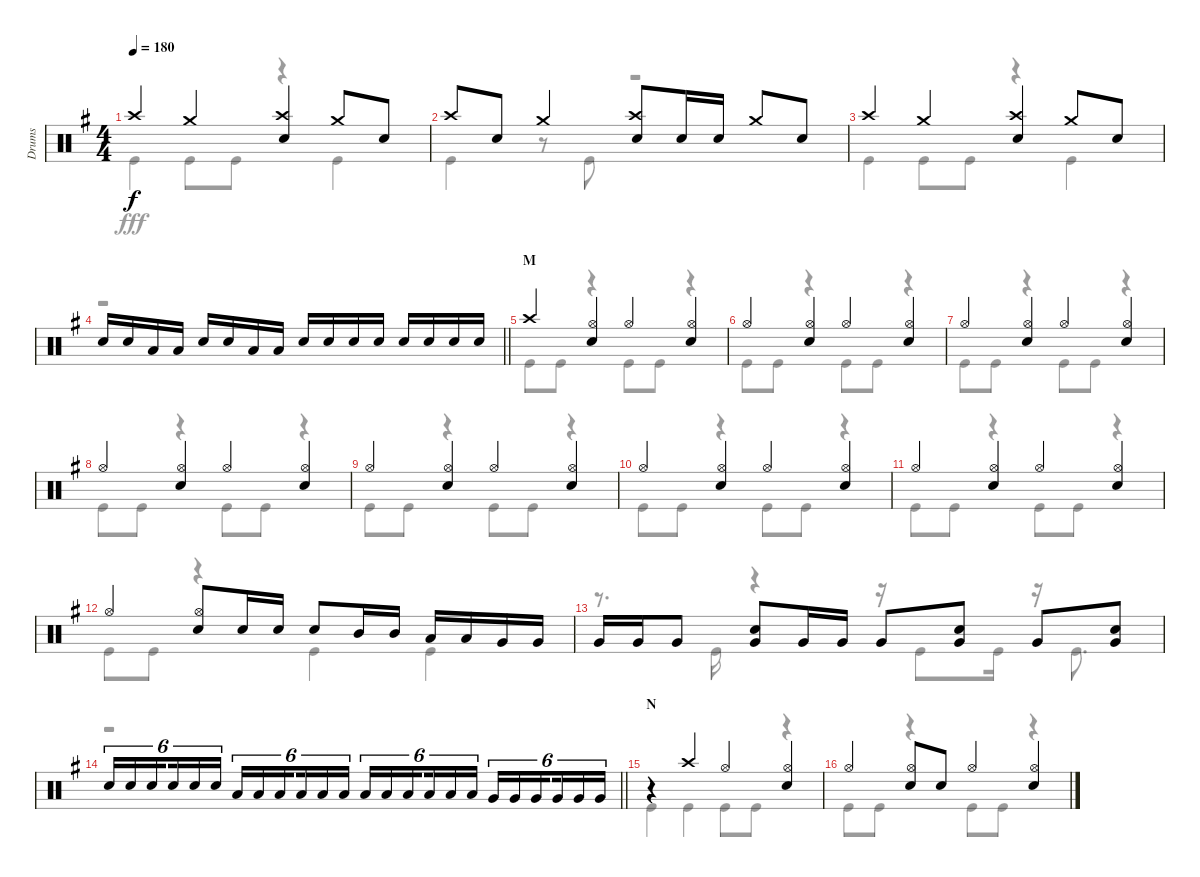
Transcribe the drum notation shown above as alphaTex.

\track ("Drums" "Drums") {instrument percussion}
\staff {score}
\articulation defaults
\voice
\ts (4 4)
\tempo 180
\clef neutral
\ks g "Crash high (hit)".4{dy f} "Crash medium (hit)".4
("Crash high (hit)" "Snare (hit) 2").4 "Crash medium (hit)".8 "Snare (hit) 2".8 |
"Crash high (hit)".8 "Snare (hit) 2".8 "Crash medium (hit)".4 ("Crash high (hit)" "Snare (hit) 2").8 "Snare (hit) 2".16 "Snare (hit) 2".16 "Crash medium (hit)".8 "Snare (hit) 2".8 |
"Crash high (hit)".4 "Crash medium (hit)".4 ("Crash high (hit)" "Snare (hit) 2").4 "Crash medium (hit)".8 "Snare (hit) 2".8 |
\barLineRight lightlight "Snare (hit) 2".16 "Snare (hit) 2".16 "Low Tom (hit)".16 "Low Tom (hit)".16 "Snare (hit) 2".16 "Snare (hit) 2".16 "Low Tom (hit)".16 "Low Tom (hit)".16 "Snare (hit) 2".16 "Snare (hit) 2".16 "Snare (hit) 2".16 "Snare (hit) 2".16 "Snare (hit) 2".16 "Snare (hit) 2".16 "Snare (hit) 2".16 "Snare (hit) 2".16
|
\section ("" "M")
"Crash high (hit)".4 ("Hi-Hat (open)" "Snare (hit) 2").4 "Hi-Hat (open)".4 ("Hi-Hat (open)" "Snare (hit) 2").4 |
"Hi-Hat (open)".4 ("Hi-Hat (open)" "Snare (hit) 2").4 "Hi-Hat (open)".4 ("Hi-Hat (open)" "Snare (hit) 2").4 |
"Hi-Hat (open)".4 ("Hi-Hat (open)" "Snare (hit) 2").4 "Hi-Hat (open)".4 ("Hi-Hat (open)" "Snare (hit) 2").4 |
"Hi-Hat (open)".4 ("Hi-Hat (open)" "Snare (hit) 2").4 "Hi-Hat (open)".4 ("Hi-Hat (open)" "Snare (hit) 2").4 |
"Hi-Hat (open)".4 ("Hi-Hat (open)" "Snare (hit) 2").4 "Hi-Hat (open)".4 ("Hi-Hat (open)" "Snare (hit) 2").4 |
"Hi-Hat (open)".4 ("Hi-Hat (open)" "Snare (hit) 2").4 "Hi-Hat (open)".4 ("Hi-Hat (open)" "Snare (hit) 2").4 |
"Hi-Hat (open)".4 ("Hi-Hat (open)" "Snare (hit) 2").4 "Hi-Hat (open)".4 ("Hi-Hat (open)" "Snare (hit) 2").4 |
"Hi-Hat (open)".4 ("Hi-Hat (open)" "Snare (hit) 2").8 "Snare (hit) 2".16 "Snare (hit) 2".16 "Snare (hit) 2".8 "Mid Tom (hit)".16 "Mid Tom (hit)".16 "Low Tom (hit)".16 "Low Tom (hit)".16 "Very Low Tom (hit)".16 "Very Low Tom (hit)".16 |
"Very Low Tom (hit)".16 "Very Low Tom (hit)".16 "Very Low Tom (hit)".8 ("Snare (hit) 2" "Very Low Tom (hit)").8 "Very Low Tom (hit)".16 "Very Low Tom (hit)".16 "Very Low Tom (hit)".8 ("Snare (hit) 2" "Very Low Tom (hit)").8 "Very Low Tom (hit)".8 ("Snare (hit) 2" "Very Low Tom (hit)").8 |
\barLineRight lightlight "Snare (hit) 2".16{tu (6 4)} "Snare (hit) 2".16{tu (6 4)} "Snare (hit) 2".16{tu (6 4) beam splitsecondary} "Snare (hit) 2".16{tu (6 4)} "Snare (hit) 2".16{tu (6 4)} "Snare (hit) 2".16{tu (6 4)} "Low Tom (hit)".16{tu (6 4)} "Low Tom (hit)".16{tu (6 4)} "Low Tom (hit)".16{tu (6 4) beam splitsecondary} "Low Tom (hit)".16{tu (6 4)} "Low Tom (hit)".16{tu (6 4)} "Low Tom (hit)".16{tu (6 4)} "Low Tom (hit)".16{tu (6 4)} "Low Tom (hit)".16{tu (6 4)} "Low Tom (hit)".16{tu (6 4) beam splitsecondary} "Low Tom (hit)".16{tu (6 4)} "Low Tom (hit)".16{tu (6 4)} "Low Tom (hit)".16{tu (6 4)} "Very Low Tom (hit)".16{tu (6 4)} "Very Low Tom (hit)".16{tu (6 4)} "Very Low Tom (hit)".16{tu (6 4) beam splitsecondary} "Very Low Tom (hit)".16{tu (6 4)} "Very Low Tom (hit)".16{tu (6 4)} "Very Low Tom (hit)".16{tu (6 4)}
|
\section ("" "N")
r.4 "Crash high (hit)".4 "Hi-Hat (open)".4 ("Hi-Hat (open)" "Snare (hit) 2").4 |
"Hi-Hat (open)".4 ("Hi-Hat (open)" "Snare (hit) 2").8 "Snare (hit) 2".8 "Hi-Hat (open)".4 ("Hi-Hat (open)" "Snare (hit) 2").4
\voice
\clef neutral
\ottava regular
\simile none
\ks g "Kick (hit)".4{dy fff} "Kick (hit)".8 "Kick (hit)".8
r.4 "Kick (hit)".4 |
"Kick (hit)".4 r.8 "Kick (hit)".8 r.2 |
"Kick (hit)".4 "Kick (hit)".8 "Kick (hit)".8 r.4 "Kick (hit)".4 |
\barLineRight lightlight
r.1 |
"Kick (hit)".8 "Kick (hit)".8 r.4 "Kick (hit)".8 "Kick (hit)".8 r.4 |
"Kick (hit)".8 "Kick (hit)".8 r.4 "Kick (hit)".8 "Kick (hit)".8 r.4 |
"Kick (hit)".8 "Kick (hit)".8 r.4 "Kick (hit)".8 "Kick (hit)".8 r.4 |
"Kick (hit)".8 "Kick (hit)".8 r.4 "Kick (hit)".8 "Kick (hit)".8 r.4 |
"Kick (hit)".8 "Kick (hit)".8 r.4 "Kick (hit)".8 "Kick (hit)".8 r.4 |
"Kick (hit)".8 "Kick (hit)".8 r.4 "Kick (hit)".8 "Kick (hit)".8 r.4 |
"Kick (hit)".8 "Kick (hit)".8 r.4 "Kick (hit)".8 "Kick (hit)".8 r.4 |
"Kick (hit)".8 "Kick (hit)".8 r.4 "Kick (hit)".4 "Kick (hit)".4 |
r.8{d} "Kick (hit)".16 r.4 r.16 "Kick (hit)".8 "Kick (hit)".16 r.16 "Kick (hit)".8{d} |
\barLineRight lightlight
r.1 |
"Kick (hit)".4 "Kick (hit)".4 "Kick (hit)".8 "Kick (hit)".8 r.4 |
"Kick (hit)".8 "Kick (hit)".8 r.4 "Kick (hit)".8 "Kick (hit)".8 r.4
